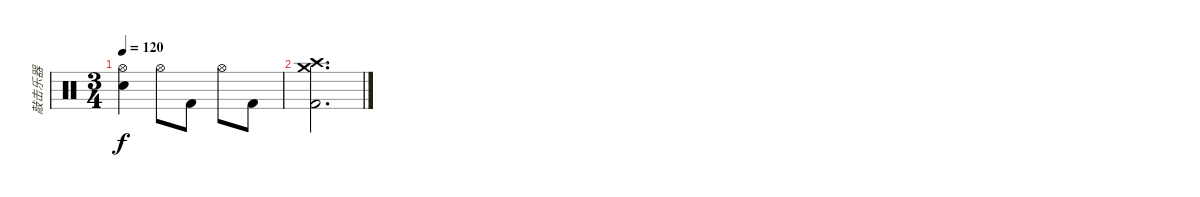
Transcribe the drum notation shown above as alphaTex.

\track ("敲击乐器" "敲击乐器") {instrument percussion}
\staff {score}
\articulation defaults
\ts (3 4)
\tempo 120
\clef neutral
\ks c
("Hi-Hat (open)" "Snare (hit) 2").4{dy f} "Hi-Hat (open)".8 "Kick (hit) 2".8 "Hi-Hat (open)".8 "Kick (hit) 2".8 |
("Kick (hit) 2" "Crash high (hit)" "Crash medium (hit)").2{d}
